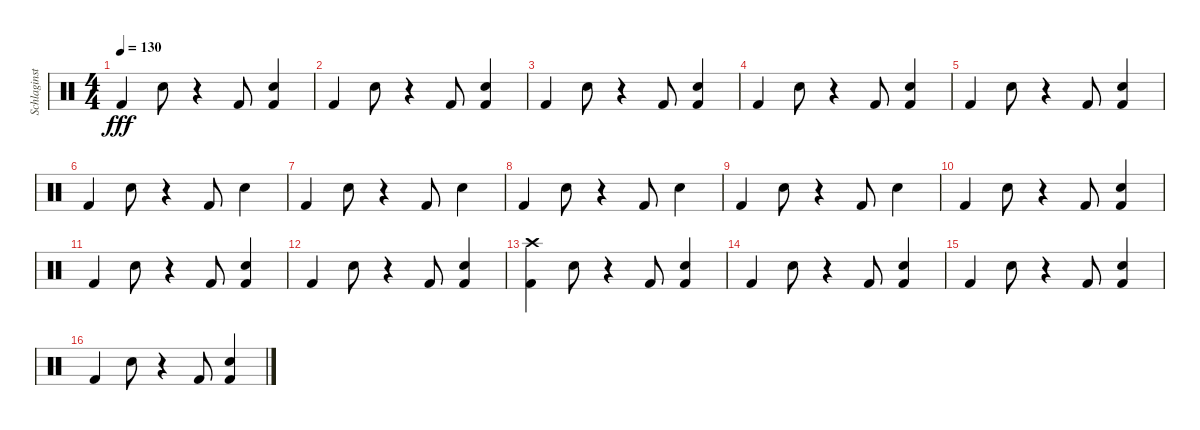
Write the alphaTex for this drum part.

\track ("Schlaginstrumente - Auswahl" "Schlaginst") {instrument percussion}
\staff {score}
\articulation defaults
\ts (4 4)
\tempo 130
\clef neutral
\ks c "Kick (hit) 2".4{dy fff} "Snare (hit) 2".8
r.4 "Kick (hit) 2".8 ("Snare (hit) 2" "Kick (hit) 2").4 |
"Kick (hit) 2".4 "Snare (hit) 2".8 r.4 "Kick (hit) 2".8 ("Snare (hit) 2" "Kick (hit) 2").4 |
"Kick (hit) 2".4 "Snare (hit) 2".8 r.4 "Kick (hit) 2".8 ("Snare (hit) 2" "Kick (hit) 2").4 |
"Kick (hit) 2".4 "Snare (hit) 2".8 r.4 "Kick (hit) 2".8 ("Snare (hit) 2" "Kick (hit) 2").4 |
"Kick (hit) 2".4 "Snare (hit) 2".8 r.4 "Kick (hit) 2".8 ("Snare (hit) 2" "Kick (hit) 2").4 |
"Kick (hit) 2".4 "Snare (hit) 2".8 r.4 "Kick (hit) 2".8 "Snare (hit) 2".4 |
"Kick (hit) 2".4 "Snare (hit) 2".8 r.4 "Kick (hit) 2".8 "Snare (hit) 2".4 |
"Kick (hit) 2".4 "Snare (hit) 2".8 r.4 "Kick (hit) 2".8 "Snare (hit) 2".4 |
"Kick (hit) 2".4 "Snare (hit) 2".8 r.4 "Kick (hit) 2".8 "Snare (hit) 2".4 |
"Kick (hit) 2".4 "Snare (hit) 2".8 r.4 "Kick (hit) 2".8 ("Snare (hit) 2" "Kick (hit) 2").4 |
"Kick (hit) 2".4 "Snare (hit) 2".8 r.4 "Kick (hit) 2".8 ("Snare (hit) 2" "Kick (hit) 2").4 |
"Kick (hit) 2".4 "Snare (hit) 2".8 r.4 "Kick (hit) 2".8 ("Snare (hit) 2" "Kick (hit) 2").4 |
("Crash high (hit)" "Kick (hit) 2").4 "Snare (hit) 2".8 r.4 "Kick (hit) 2".8 ("Snare (hit) 2" "Kick (hit) 2").4 |
"Kick (hit) 2".4 "Snare (hit) 2".8 r.4 "Kick (hit) 2".8 ("Snare (hit) 2" "Kick (hit) 2").4 |
"Kick (hit) 2".4 "Snare (hit) 2".8 r.4 "Kick (hit) 2".8 ("Snare (hit) 2" "Kick (hit) 2").4 |
"Kick (hit) 2".4 "Snare (hit) 2".8 r.4 "Kick (hit) 2".8 ("Snare (hit) 2" "Kick (hit) 2").4
